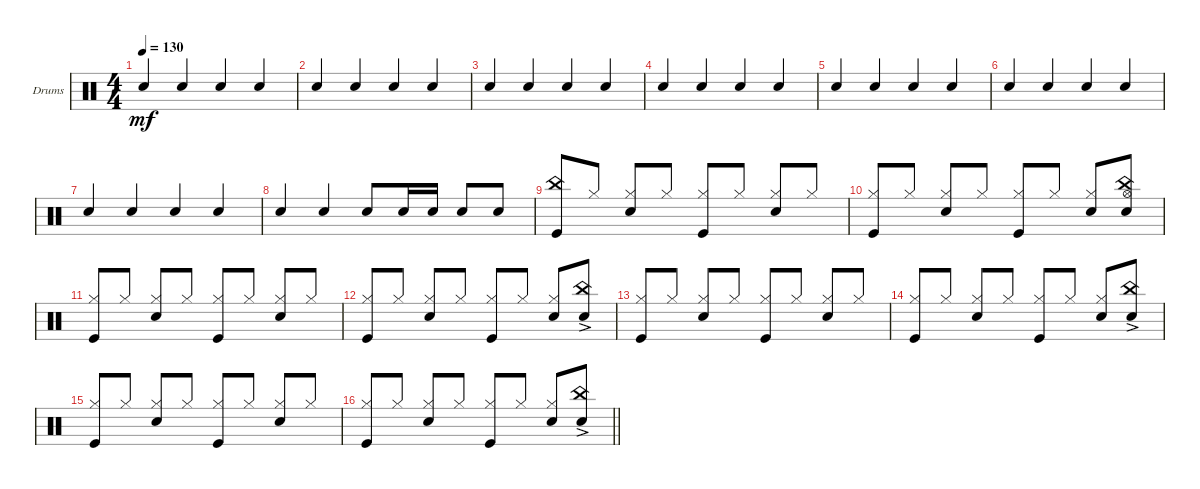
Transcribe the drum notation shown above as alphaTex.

\defaultSystemsLayout 4
\bracketExtendMode groupsimilarinstruments
\firstSystemTrackNameOrientation horizontal
\otherSystemsTrackNameOrientation horizontal
\track ("Drumkit" "Drums") {instrument percussion}
\staff {score}
\articulation defaults
\ts (4 4)
\tempo 130
\clef neutral
\scale
0.472222
\ks c "Snare (hit) 2".4{dy mf beam invert} "Snare (hit) 2".4{beam invert} "Snare (hit) 2".4{beam invert} "Snare (hit) 2".4{beam invert}
|
\scale
0.263889 "Snare (hit) 2".4{beam invert} "Snare (hit) 2".4{beam invert} "Snare (hit) 2".4{beam invert} "Snare (hit) 2".4{beam invert} |
\scale
0.263889 "Snare (hit) 2".4{beam invert} "Snare (hit) 2".4{beam invert} "Snare (hit) 2".4{beam invert} "Snare (hit) 2".4{beam invert} |
\scale
0.333333 "Snare (hit) 2".4{beam invert} "Snare (hit) 2".4{beam invert} "Snare (hit) 2".4{beam invert} "Snare (hit) 2".4{beam invert} |
\scale
0.333333 "Snare (hit) 2".4{beam invert} "Snare (hit) 2".4{beam invert} "Snare (hit) 2".4{beam invert} "Snare (hit) 2".4{beam invert} |
\scale
0.333333 "Snare (hit) 2".4{beam invert} "Snare (hit) 2".4{beam invert} "Snare (hit) 2".4{beam invert} "Snare (hit) 2".4{beam invert} |
\scale
0.333333 "Snare (hit) 2".4{beam invert} "Snare (hit) 2".4{beam invert} "Snare (hit) 2".4{beam invert} "Snare (hit) 2".4{beam invert} |
\scale
0.333333 "Snare (hit) 2".4{beam invert} "Snare (hit) 2".4{beam invert} "Snare (hit) 2".8{beam invert} "Snare (hit) 2".16 "Snare (hit) 2".16 "Snare (hit) 2".8{beam invert} "Snare (hit) 2".8 |
\scale
0.333333 ("Kick (hit)" "China (hit)").8 "Hi-Hat (closed)".8 ("Hi-Hat (closed)" "Snare (hit) 2").8{beam invert} "Hi-Hat (closed)".8 ("Hi-Hat (closed)" "Kick (hit)").8{beam invert} "Hi-Hat (closed)".8 ("Hi-Hat (closed)" "Snare (hit) 2").8{beam invert} "Hi-Hat (closed)".8 |
\scale
0.333333 ("Hi-Hat (closed)" "Kick (hit)").8{beam invert} "Hi-Hat (closed)".8 ("Hi-Hat (closed)" "Snare (hit) 2").8{beam invert} "Hi-Hat (closed)".8 ("Hi-Hat (closed)" "Kick (hit)").8{beam invert} "Hi-Hat (closed)".8 ("Hi-Hat (closed)" "Snare (hit) 2").8{beam invert} ("Hi-Hat (open)" "Snare (hit) 2" "China (hit)").8 |
\scale
0.333333 ("Hi-Hat (closed)" "Kick (hit)").8{beam invert} "Hi-Hat (closed)".8 ("Hi-Hat (closed)" "Snare (hit) 2").8{beam invert} "Hi-Hat (closed)".8 ("Hi-Hat (closed)" "Kick (hit)").8{beam invert} "Hi-Hat (closed)".8 ("Hi-Hat (closed)" "Snare (hit) 2").8{beam invert} "Hi-Hat (closed)".8 |
\scale
0.333333 ("Hi-Hat (closed)" "Kick (hit)").8{beam invert} "Hi-Hat (closed)".8 ("Hi-Hat (closed)" "Snare (hit) 2").8{beam invert} "Hi-Hat (closed)".8 ("Hi-Hat (closed)" "Kick (hit)").8{beam invert} "Hi-Hat (closed)".8 ("Hi-Hat (closed)" "Snare (hit) 2").8{beam invert} ("Snare (hit) 2" "China (hit)"{ac}).8 |
\scale
0.333333 ("Hi-Hat (closed)" "Kick (hit)").8{beam invert} "Hi-Hat (closed)".8 ("Hi-Hat (closed)" "Snare (hit) 2").8{beam invert} "Hi-Hat (closed)".8 ("Hi-Hat (closed)" "Kick (hit)").8{beam invert} "Hi-Hat (closed)".8 ("Hi-Hat (closed)" "Snare (hit) 2").8{beam invert} "Hi-Hat (closed)".8 |
\scale
0.333333 ("Hi-Hat (closed)" "Kick (hit)").8{beam invert} "Hi-Hat (closed)".8 ("Hi-Hat (closed)" "Snare (hit) 2").8{beam invert} "Hi-Hat (closed)".8 ("Hi-Hat (closed)" "Kick (hit)").8{beam invert} "Hi-Hat (closed)".8 ("Hi-Hat (closed)" "Snare (hit) 2").8{beam invert} ("Snare (hit) 2" "China (hit)"{ac}).8 |
\scale
0.333333 ("Hi-Hat (closed)" "Kick (hit)").8{beam invert} "Hi-Hat (closed)".8 ("Hi-Hat (closed)" "Snare (hit) 2").8{beam invert} "Hi-Hat (closed)".8 ("Hi-Hat (closed)" "Kick (hit)").8{beam invert} "Hi-Hat (closed)".8 ("Hi-Hat (closed)" "Snare (hit) 2").8{beam invert} "Hi-Hat (closed)".8 |
\scale
0.333333
\barLineRight lightlight
("Hi-Hat (closed)" "Kick (hit)").8{beam invert} "Hi-Hat (closed)".8 ("Hi-Hat (closed)" "Snare (hit) 2").8{beam invert} "Hi-Hat (closed)".8 ("Hi-Hat (closed)" "Kick (hit)").8{beam invert} "Hi-Hat (closed)".8 ("Hi-Hat (closed)" "Snare (hit) 2").8{beam invert} ("Snare (hit) 2" "China (hit)"{ac}).8
